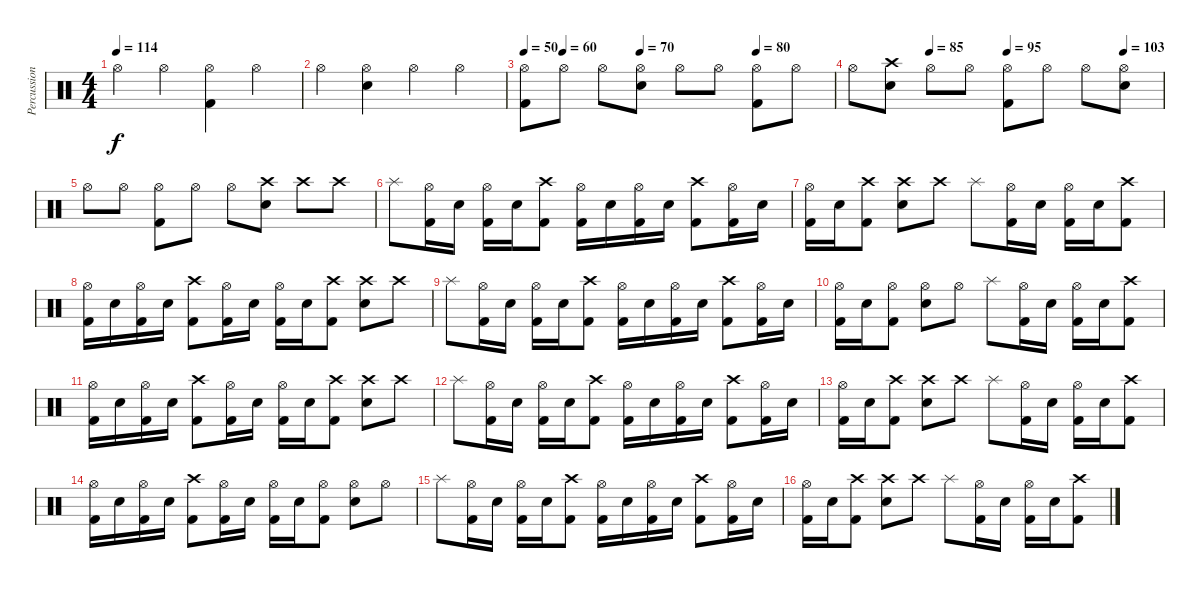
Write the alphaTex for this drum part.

\track ("Percussion" "Percussion") {instrument percussion}
\staff {score}
\articulation defaults
\ts (4 4)
\tempo 114
\clef neutral
\ks c "Hi-Hat (open)".4{dy f} "Hi-Hat (open)".4
("Kick (hit) 2" "Hi-Hat (open)").4 "Hi-Hat (open)".4 |
"Hi-Hat (open)".4 ("Snare (hit) 2" "Hi-Hat (open)").4 "Hi-Hat (open)".4 "Hi-Hat (open)".4 |
\tempo 50
\tempo (60 0.125)
\tempo (70 0.375)
\tempo (80 0.75)
("Kick (hit) 2" "Hi-Hat (open)").8 "Hi-Hat (open)".8 "Hi-Hat (open)".8 ("Snare (hit) 2" "Hi-Hat (open)").8 "Hi-Hat (open)".8 "Hi-Hat (open)".8 ("Kick (hit) 2" "Hi-Hat (open)").8 "Hi-Hat (open)".8 |
\tempo (85 0.25)
\tempo (95 0.5)
\tempo (103 0.875)
"Hi-Hat (open)".8 ("Snare (hit) 2" "Crash high (hit)").8 "Hi-Hat (open)".8 "Hi-Hat (open)".8 ("Kick (hit) 2" "Hi-Hat (open)").8 "Hi-Hat (open)".8 "Hi-Hat (open)".8 ("Snare (hit) 2" "Hi-Hat (open)").8 |
"Hi-Hat (open)".8 "Hi-Hat (open)".8 ("Kick (hit) 2" "Hi-Hat (open)").8 "Hi-Hat (open)".8 "Hi-Hat (open)".8 ("Snare (hit) 2" "Crash high (hit)").8 "Crash high (hit)".8 "Crash high (hit)".8 |
"Splash (hit)".8 ("Kick (hit) 2" "Hi-Hat (open)").16 "Snare (hit) 2".16 ("Kick (hit) 2" "Hi-Hat (open)").16 "Snare (hit) 2".16 ("Kick (hit) 2" "Crash high (hit)").8 ("Kick (hit) 2" "Hi-Hat (open)").16 "Snare (hit) 2".16 ("Kick (hit) 2" "Hi-Hat (open)").16 "Snare (hit) 2".16 ("Kick (hit) 2" "Crash high (hit)").8 ("Kick (hit) 2" "Hi-Hat (open)").16 "Snare (hit) 2".16 |
("Kick (hit) 2" "Hi-Hat (open)").16 "Snare (hit) 2".16 ("Kick (hit) 2" "Crash high (hit)").8 ("Snare (hit) 2" "Crash high (hit)").8 "Crash high (hit)".8 "Splash (hit)".8 ("Kick (hit) 2" "Hi-Hat (open)").16 "Snare (hit) 2".16 ("Kick (hit) 2" "Hi-Hat (open)").16 "Snare (hit) 2".16 ("Kick (hit) 2" "Crash high (hit)").8 |
("Kick (hit) 2" "Hi-Hat (open)").16 "Snare (hit) 2".16 ("Kick (hit) 2" "Hi-Hat (open)").16 "Snare (hit) 2".16 ("Kick (hit) 2" "Crash high (hit)").8 ("Kick (hit) 2" "Hi-Hat (open)").16 "Snare (hit) 2".16 ("Kick (hit) 2" "Hi-Hat (open)").16 "Snare (hit) 2".16 ("Kick (hit) 2" "Crash high (hit)").8 ("Snare (hit) 2" "Crash high (hit)").8 "Crash high (hit)".8 |
"Splash (hit)".8 ("Kick (hit) 2" "Hi-Hat (open)").16 "Snare (hit) 2".16 ("Kick (hit) 2" "Hi-Hat (open)").16 "Snare (hit) 2".16 ("Kick (hit) 2" "Crash high (hit)").8 ("Kick (hit) 2" "Hi-Hat (open)").16 "Snare (hit) 2".16 ("Kick (hit) 2" "Hi-Hat (open)").16 "Snare (hit) 2".16 ("Kick (hit) 2" "Crash high (hit)").8 ("Kick (hit) 2" "Hi-Hat (open)").16 "Snare (hit) 2".16 |
("Kick (hit) 2" "Hi-Hat (open)").16 "Snare (hit) 2".16 ("Kick (hit) 2" "Hi-Hat (open)").8 ("Snare (hit) 2" "Hi-Hat (open)").8 "Hi-Hat (open)".8 "Splash (hit)".8 ("Kick (hit) 2" "Hi-Hat (open)").16 "Snare (hit) 2".16 ("Kick (hit) 2" "Hi-Hat (open)").16 "Snare (hit) 2".16 ("Kick (hit) 2" "Crash high (hit)").8 |
("Kick (hit) 2" "Hi-Hat (open)").16 "Snare (hit) 2".16 ("Kick (hit) 2" "Hi-Hat (open)").16 "Snare (hit) 2".16 ("Kick (hit) 2" "Crash high (hit)").8 ("Kick (hit) 2" "Hi-Hat (open)").16 "Snare (hit) 2".16 ("Kick (hit) 2" "Hi-Hat (open)").16 "Snare (hit) 2".16 ("Kick (hit) 2" "Crash high (hit)").8 ("Snare (hit) 2" "Crash high (hit)").8 "Crash high (hit)".8 |
"Splash (hit)".8 ("Kick (hit) 2" "Hi-Hat (open)").16 "Snare (hit) 2".16 ("Kick (hit) 2" "Hi-Hat (open)").16 "Snare (hit) 2".16 ("Kick (hit) 2" "Crash high (hit)").8 ("Kick (hit) 2" "Hi-Hat (open)").16 "Snare (hit) 2".16 ("Kick (hit) 2" "Hi-Hat (open)").16 "Snare (hit) 2".16 ("Kick (hit) 2" "Crash high (hit)").8 ("Kick (hit) 2" "Hi-Hat (open)").16 "Snare (hit) 2".16 |
("Kick (hit) 2" "Hi-Hat (open)").16 "Snare (hit) 2".16 ("Kick (hit) 2" "Crash high (hit)").8 ("Snare (hit) 2" "Crash high (hit)").8 "Crash high (hit)".8 "Splash (hit)".8 ("Kick (hit) 2" "Hi-Hat (open)").16 "Snare (hit) 2".16 ("Kick (hit) 2" "Hi-Hat (open)").16 "Snare (hit) 2".16 ("Kick (hit) 2" "Crash high (hit)").8 |
("Kick (hit) 2" "Hi-Hat (open)").16 "Snare (hit) 2".16 ("Kick (hit) 2" "Hi-Hat (open)").16 "Snare (hit) 2".16 ("Kick (hit) 2" "Crash high (hit)").8 ("Kick (hit) 2" "Hi-Hat (open)").16 "Snare (hit) 2".16 ("Kick (hit) 2" "Hi-Hat (open)").16 "Snare (hit) 2".16 ("Kick (hit) 2" "Hi-Hat (open)").8 ("Snare (hit) 2" "Hi-Hat (open)").8 "Hi-Hat (open)".8 |
"Splash (hit)".8 ("Kick (hit) 2" "Hi-Hat (open)").16 "Snare (hit) 2".16 ("Kick (hit) 2" "Hi-Hat (open)").16 "Snare (hit) 2".16 ("Kick (hit) 2" "Crash high (hit)").8 ("Kick (hit) 2" "Hi-Hat (open)").16 "Snare (hit) 2".16 ("Kick (hit) 2" "Hi-Hat (open)").16 "Snare (hit) 2".16 ("Kick (hit) 2" "Crash high (hit)").8 ("Kick (hit) 2" "Hi-Hat (open)").16 "Snare (hit) 2".16 |
("Kick (hit) 2" "Hi-Hat (open)").16 "Snare (hit) 2".16 ("Kick (hit) 2" "Crash high (hit)").8 ("Snare (hit) 2" "Crash high (hit)").8 "Crash high (hit)".8 "Splash (hit)".8 ("Kick (hit) 2" "Hi-Hat (open)").16 "Snare (hit) 2".16 ("Kick (hit) 2" "Hi-Hat (open)").16 "Snare (hit) 2".16 ("Kick (hit) 2" "Crash high (hit)").8
